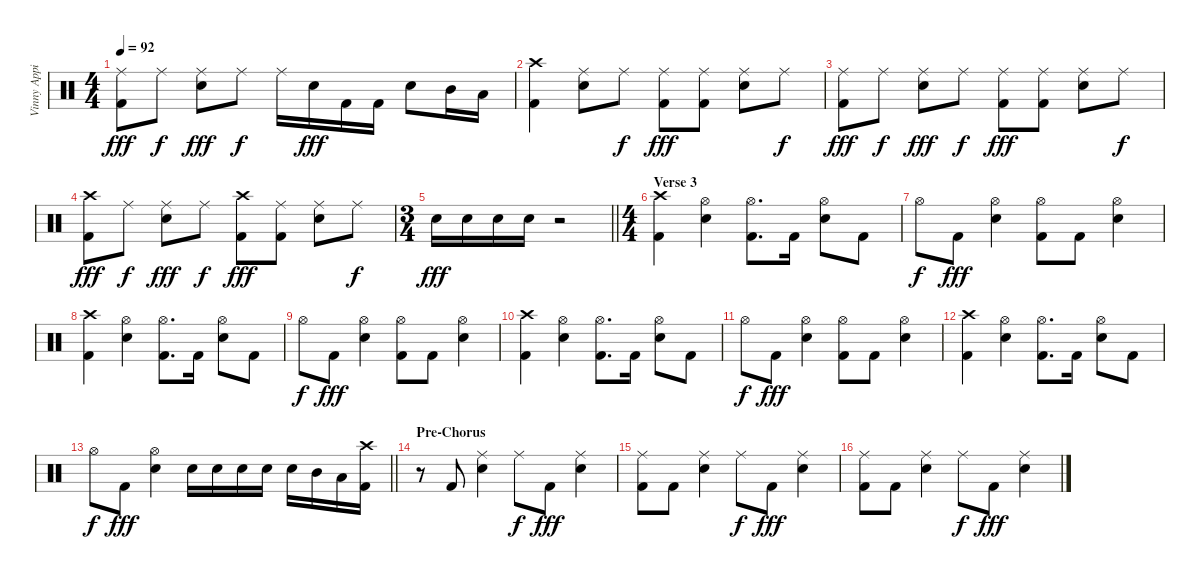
\track ("Vinny Appice" "Vinny Appi") {instrument percussion}
\staff {score}
\articulation defaults
\ts (4 4)
\tempo 92
\clef neutral
\ks c
("Ride (middle)" "Kick (hit) 2").8{dy fff} "Ride (middle)".8{dy f} ("Ride (middle)" "Snare (hit) 2").8{dy fff} "Ride (middle)".8{dy f} "Ride (middle)".16 "Snare (hit) 2".16{dy fff} "Kick (hit) 2".16 "Kick (hit) 2".16 "Snare (hit) 2".8 "Mid Tom (hit)".16 "Low Tom (hit)".16 |
("Crash high (hit)" "Kick (hit) 2").4 ("Ride (middle)" "Snare (hit) 2").8 "Ride (middle)".8{dy f} ("Ride (middle)" "Kick (hit) 2").8{dy fff} ("Ride (middle)" "Kick (hit) 2").8 ("Ride (middle)" "Snare (hit) 2").8 "Ride (middle)".8{dy f} |
("Ride (middle)" "Kick (hit) 2").8{dy fff} "Ride (middle)".8{dy f} ("Ride (middle)" "Snare (hit) 2").8{dy fff} "Ride (middle)".8{dy f} ("Ride (middle)" "Kick (hit) 2").8{dy fff} ("Ride (middle)" "Kick (hit) 2").8 ("Ride (middle)" "Snare (hit) 2").8 "Ride (middle)".8{dy f} |
("Crash high (hit)" "Kick (hit) 2").8{dy fff} "Ride (middle)".8{dy f} ("Ride (middle)" "Snare (hit) 2").8{dy fff} "Ride (middle)".8{dy f} ("Crash high (hit)" "Kick (hit) 2").8{dy fff} ("Ride (middle)" "Kick (hit) 2").8 ("Ride (middle)" "Snare (hit) 2").8 "Ride (middle)".8{dy f} |
\ts (3 4)
\barLineRight lightlight "Snare (hit) 2".16{dy fff} "Snare (hit) 2".16 "Snare (hit) 2".16 "Snare (hit) 2".16
r.2 |
\ts (4 4)
\section ("" "Verse 3")
("Crash high (hit)" "Kick (hit) 2").4 ("Hi-Hat (open)" "Snare (hit) 2").4 ("Hi-Hat (open)" "Kick (hit) 2").8{d} "Kick (hit) 2".16 ("Hi-Hat (open)" "Snare (hit) 2").8 "Kick (hit) 2".8 |
"Hi-Hat (open)".8{dy f} "Kick (hit) 2".8{dy fff} ("Hi-Hat (open)" "Snare (hit) 2").4 ("Hi-Hat (open)" "Kick (hit) 2").8 "Kick (hit) 2".8 ("Hi-Hat (open)" "Snare (hit) 2").4 |
("Crash high (hit)" "Kick (hit) 2").4 ("Hi-Hat (open)" "Snare (hit) 2").4 ("Hi-Hat (open)" "Kick (hit) 2").8{d} "Kick (hit) 2".16 ("Hi-Hat (open)" "Snare (hit) 2").8 "Kick (hit) 2".8 |
"Hi-Hat (open)".8{dy f} "Kick (hit) 2".8{dy fff} ("Hi-Hat (open)" "Snare (hit) 2").4 ("Hi-Hat (open)" "Kick (hit) 2").8 "Kick (hit) 2".8 ("Hi-Hat (open)" "Snare (hit) 2").4 |
("Crash high (hit)" "Kick (hit) 2").4 ("Hi-Hat (open)" "Snare (hit) 2").4 ("Hi-Hat (open)" "Kick (hit) 2").8{d} "Kick (hit) 2".16 ("Hi-Hat (open)" "Snare (hit) 2").8 "Kick (hit) 2".8 |
"Hi-Hat (open)".8{dy f} "Kick (hit) 2".8{dy fff} ("Hi-Hat (open)" "Snare (hit) 2").4 ("Hi-Hat (open)" "Kick (hit) 2").8 "Kick (hit) 2".8 ("Hi-Hat (open)" "Snare (hit) 2").4 |
("Crash high (hit)" "Kick (hit) 2").4 ("Hi-Hat (open)" "Snare (hit) 2").4 ("Hi-Hat (open)" "Kick (hit) 2").8{d} "Kick (hit) 2".16 ("Hi-Hat (open)" "Snare (hit) 2").8 "Kick (hit) 2".8 |
\barLineRight lightlight "Hi-Hat (open)".8{dy f} "Kick (hit) 2".8{dy fff}
("Hi-Hat (open)" "Snare (hit) 2").4 "Snare (hit) 2".16 "Snare (hit) 2".16 "Snare (hit) 2".16 "Snare (hit) 2".16 "Snare (hit) 2".16 "Mid Tom (hit)".16 "Low Tom (hit)".16 ("Crash high (hit)" "Kick (hit) 2").16 |
\section ("" "Pre-Chorus")
r.8 "Kick (hit) 2".8 ("Ride (middle)" "Snare (hit) 2").4 "Ride (middle)".8{dy f} "Kick (hit) 2".8{dy fff} ("Ride (middle)" "Snare (hit) 2").4 |
("Ride (middle)" "Kick (hit) 2").8 "Kick (hit) 2".8 ("Ride (middle)" "Snare (hit) 2").4 "Ride (middle)".8{dy f} "Kick (hit) 2".8{dy fff} ("Ride (middle)" "Snare (hit) 2").4 |
("Ride (middle)" "Kick (hit) 2").8 "Kick (hit) 2".8 ("Ride (middle)" "Snare (hit) 2").4 "Ride (middle)".8{dy f} "Kick (hit) 2".8{dy fff} ("Ride (middle)" "Snare (hit) 2").4
